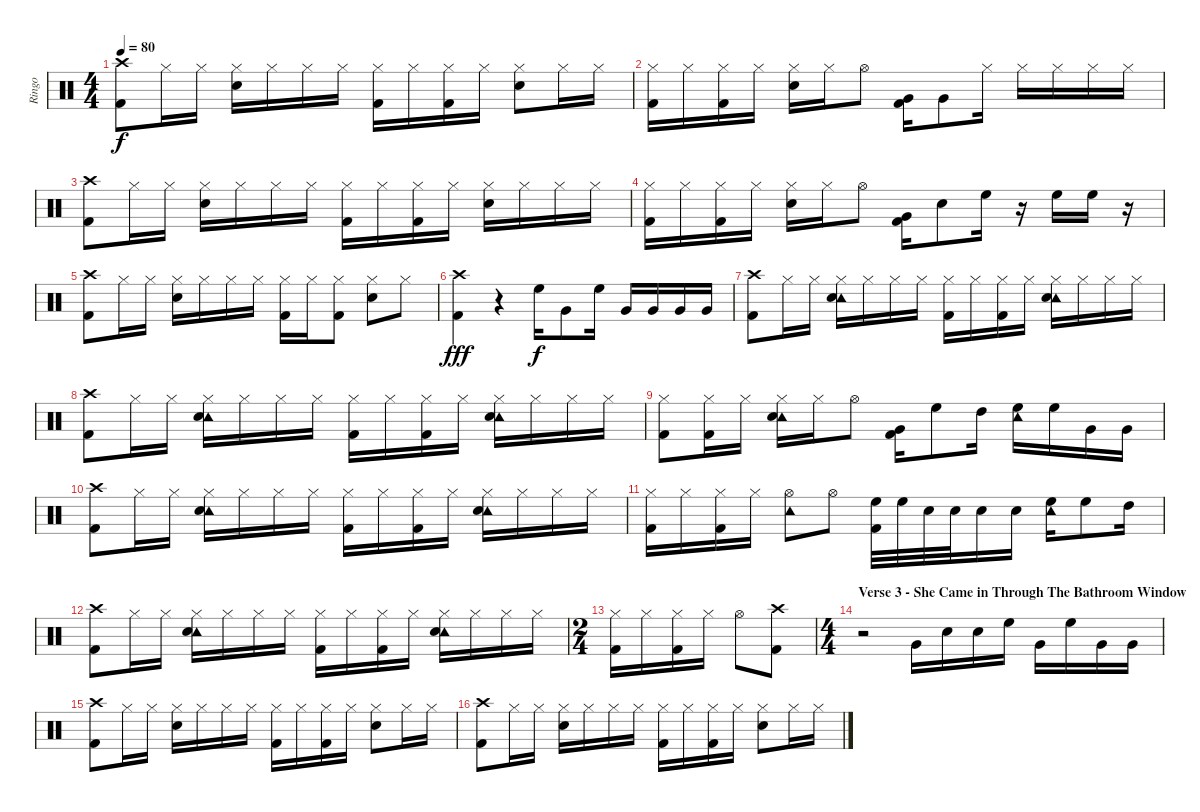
\track ("Ringo" "Ringo") {instrument percussion}
\staff {score}
\articulation defaults
\ts (4 4)
\tempo 80
\clef neutral
\ks c
("Crash high (hit)" "Kick (hit) 2").8{dy f} "Hi-Hat (closed)".16 "Hi-Hat (closed)".16 ("Hi-Hat (closed)" "Snare (hit) 2").16 "Hi-Hat (closed)".16 "Hi-Hat (closed)".16 "Hi-Hat (closed)".16 ("Hi-Hat (closed)" "Kick (hit) 2").16 "Hi-Hat (closed)".16 ("Hi-Hat (closed)" "Kick (hit) 2").16 "Hi-Hat (closed)".16 ("Hi-Hat (closed)" "Snare (hit) 2").8 "Hi-Hat (closed)".16 "Hi-Hat (closed)".16 |
("Hi-Hat (closed)" "Kick (hit) 2").16 "Hi-Hat (closed)".16 ("Hi-Hat (closed)" "Kick (hit) 2").16 "Hi-Hat (closed)".16 ("Hi-Hat (closed)" "Snare (hit) 2").16 "Hi-Hat (closed)".16 "Hi-Hat (open)".8 ("Very Low Tom (hit)" "Kick (hit) 2").16 "Very Low Tom (hit)".8 "Hi-Hat (closed)".16 "Hi-Hat (closed)".16 "Hi-Hat (closed)".16 "Hi-Hat (closed)".16 "Hi-Hat (closed)".16 |
("Crash high (hit)" "Kick (hit) 2").8 "Hi-Hat (closed)".16 "Hi-Hat (closed)".16 ("Hi-Hat (closed)" "Snare (hit) 2").16 "Hi-Hat (closed)".16 "Hi-Hat (closed)".16 "Hi-Hat (closed)".16 ("Hi-Hat (closed)" "Kick (hit) 2").16 "Hi-Hat (closed)".16 ("Hi-Hat (closed)" "Kick (hit) 2").16 "Hi-Hat (closed)".16 ("Hi-Hat (closed)" "Snare (hit) 2").16 "Hi-Hat (closed)".16 "Hi-Hat (closed)".16 "Hi-Hat (closed)".16 |
("Hi-Hat (closed)" "Kick (hit) 2").16 "Hi-Hat (closed)".16 ("Hi-Hat (closed)" "Kick (hit) 2").16 "Hi-Hat (closed)".16 ("Hi-Hat (closed)" "Snare (hit) 2").16 "Hi-Hat (closed)".16 "Hi-Hat (open)".8 ("Very Low Tom (hit)" "Kick (hit) 2").16 "Snare (hit) 2".8 "High Floor Tom (hit)".16 r.16 "High Floor Tom (hit)".16 "High Floor Tom (hit)".16 r.16 |
("Crash high (hit)" "Kick (hit) 2").8 "Hi-Hat (closed)".16 "Hi-Hat (closed)".16 ("Hi-Hat (closed)" "Snare (hit) 2").16 "Hi-Hat (closed)".16 "Hi-Hat (closed)".16 "Hi-Hat (closed)".16 ("Hi-Hat (closed)" "Kick (hit) 2").16 "Hi-Hat (closed)".16 ("Hi-Hat (closed)" "Kick (hit) 2").8 ("Hi-Hat (closed)" "Snare (hit) 2").8 "Hi-Hat (closed)".8 |
("Crash high (hit)" "Kick (hit) 2").4{dy fff} r.4 "High Floor Tom (hit)".16{dy f} "Very Low Tom (hit)".8 "High Floor Tom (hit)".16 "Very Low Tom (hit)".16 "Very Low Tom (hit)".16 "Very Low Tom (hit)".16 "Very Low Tom (hit)".16 |
("Crash high (hit)" "Kick (hit) 2").8 "Hi-Hat (closed)".16 "Hi-Hat (closed)".16 ("Tambourine (hit)" "Hi-Hat (closed)" "Snare (hit) 2").16 "Hi-Hat (closed)".16 "Hi-Hat (closed)".16 "Hi-Hat (closed)".16 ("Hi-Hat (closed)" "Kick (hit) 2").16 "Hi-Hat (closed)".16 ("Hi-Hat (closed)" "Kick (hit) 2").16 "Hi-Hat (closed)".16 ("Tambourine (hit)" "Hi-Hat (closed)" "Snare (hit) 2").16 "Hi-Hat (closed)".16 "Hi-Hat (closed)".16 "Hi-Hat (closed)".16 |
("Crash high (hit)" "Kick (hit) 2").8 "Hi-Hat (closed)".16 "Hi-Hat (closed)".16 ("Tambourine (hit)" "Hi-Hat (closed)" "Snare (hit) 2").16 "Hi-Hat (closed)".16 "Hi-Hat (closed)".16 "Hi-Hat (closed)".16 ("Hi-Hat (closed)" "Kick (hit) 2").16 "Hi-Hat (closed)".16 ("Hi-Hat (closed)" "Kick (hit) 2").16 "Hi-Hat (closed)".16 ("Tambourine (hit)" "Hi-Hat (closed)" "Snare (hit) 2").16 "Hi-Hat (closed)".16 "Hi-Hat (closed)".16 "Hi-Hat (closed)".16 |
("Hi-Hat (closed)" "Kick (hit) 2").8 ("Hi-Hat (closed)" "Kick (hit) 2").16 "Hi-Hat (closed)".16 ("Tambourine (hit)" "Hi-Hat (closed)" "Snare (hit) 2").16 "Hi-Hat (closed)".16 "Hi-Hat (open)".8 ("Very Low Tom (hit)" "Kick (hit) 2").16 "High Floor Tom (hit)".8 "High Tom (hit)".16 ("Tambourine (hit)" "High Floor Tom (hit)").16 "High Floor Tom (hit)".16 "Very Low Tom (hit)".16 "Very Low Tom (hit)".16 |
("Crash high (hit)" "Kick (hit) 2").8 "Hi-Hat (closed)".16 "Hi-Hat (closed)".16 ("Tambourine (hit)" "Hi-Hat (closed)" "Snare (hit) 2").16 "Hi-Hat (closed)".16 "Hi-Hat (closed)".16 "Hi-Hat (closed)".16 ("Hi-Hat (closed)" "Kick (hit) 2").16 "Hi-Hat (closed)".16 ("Hi-Hat (closed)" "Kick (hit) 2").16 "Hi-Hat (closed)".16 ("Tambourine (hit)" "Hi-Hat (closed)" "Snare (hit) 2").16 "Hi-Hat (closed)".16 "Hi-Hat (closed)".16 "Hi-Hat (closed)".16 |
("Hi-Hat (closed)" "Kick (hit) 2").16 "Hi-Hat (closed)".16 ("Hi-Hat (closed)" "Kick (hit) 2").16 "Hi-Hat (closed)".16 ("Tambourine (hit)" "Hi-Hat (open)").8 "Hi-Hat (open)".8 ("High Floor Tom (hit)" "Kick (hit) 2").32 "High Floor Tom (hit)".32 "Snare (hit) 2".32 "Snare (hit) 2".32 "Snare (hit) 2".16 "Snare (hit) 2".16 ("Tambourine (hit)" "High Floor Tom (hit)").16 "High Floor Tom (hit)".8 "High Tom (hit)".16 |
("Crash high (hit)" "Kick (hit) 2").8 "Hi-Hat (closed)".16 "Hi-Hat (closed)".16 ("Tambourine (hit)" "Hi-Hat (closed)" "Snare (hit) 2").16 "Hi-Hat (closed)".16 "Hi-Hat (closed)".16 "Hi-Hat (closed)".16 ("Hi-Hat (closed)" "Kick (hit) 2").16 "Hi-Hat (closed)".16 ("Hi-Hat (closed)" "Kick (hit) 2").16 "Hi-Hat (closed)".16 ("Tambourine (hit)" "Hi-Hat (closed)" "Snare (hit) 2").16 "Hi-Hat (closed)".16 "Hi-Hat (closed)".16 "Hi-Hat (closed)".16 |
\ts (2 4)
("Hi-Hat (closed)" "Kick (hit) 2").16 "Hi-Hat (closed)".16 ("Hi-Hat (closed)" "Kick (hit) 2").16 "Hi-Hat (closed)".16 "Hi-Hat (open)".8 ("Crash high (hit)" "Kick (hit) 2").8 |
\ts (4 4)
\section ("" "Verse 3 - She Came in Through The Bathroom Window")
r.2 "Very Low Tom (hit)".16 "Snare (hit) 2".16 "Snare (hit) 2".16 "High Floor Tom (hit)".16 "Very Low Tom (hit)".16 "High Floor Tom (hit)".16 "Very Low Tom (hit)".16 "Very Low Tom (hit)".16 |
("Crash high (hit)" "Kick (hit) 2").8 "Hi-Hat (closed)".16 "Hi-Hat (closed)".16 ("Hi-Hat (closed)" "Snare (hit) 2").16 "Hi-Hat (closed)".16 "Hi-Hat (closed)".16 "Hi-Hat (closed)".16 ("Hi-Hat (closed)" "Kick (hit) 2").16 "Hi-Hat (closed)".16 ("Hi-Hat (closed)" "Kick (hit) 2").16 "Hi-Hat (closed)".16 ("Hi-Hat (closed)" "Snare (hit) 2").8 "Hi-Hat (closed)".16 "Hi-Hat (closed)".16 |
("Crash high (hit)" "Kick (hit) 2").8 "Hi-Hat (closed)".16 "Hi-Hat (closed)".16 ("Hi-Hat (closed)" "Snare (hit) 2").16 "Hi-Hat (closed)".16 "Hi-Hat (closed)".16 "Hi-Hat (closed)".16 ("Hi-Hat (closed)" "Kick (hit) 2").16 "Hi-Hat (closed)".16 ("Hi-Hat (closed)" "Kick (hit) 2").16 "Hi-Hat (closed)".16 ("Hi-Hat (closed)" "Snare (hit) 2").8 "Hi-Hat (closed)".16 "Hi-Hat (closed)".16
